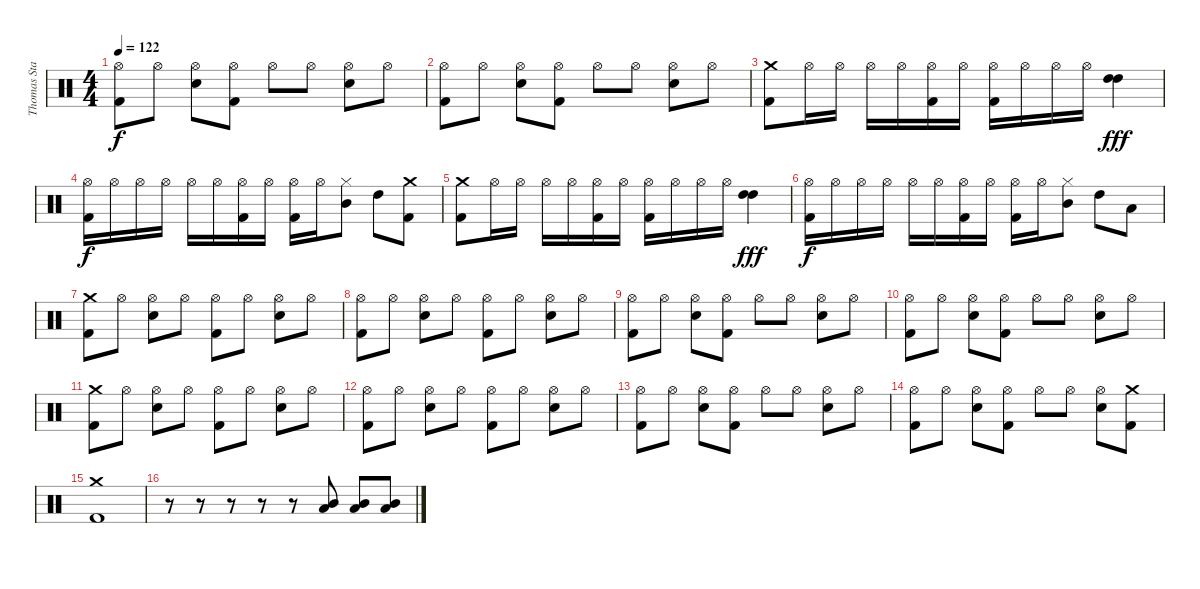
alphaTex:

\track ("Thomas Stauch" "Thomas Sta") {instrument percussion}
\staff {score}
\articulation defaults
\ts (4 4)
\tempo 122
\clef neutral
\ks c
("Hi-Hat (open)" "Kick (hit) 2").8{dy f} "Hi-Hat (open)".8 ("Hi-Hat (open)" "Electric Snare (hit)").8 ("Hi-Hat (open)" "Kick (hit) 2").8 "Hi-Hat (open)".8 "Hi-Hat (open)".8 ("Hi-Hat (open)" "Electric Snare (hit)").8 "Hi-Hat (open)".8 |
("Hi-Hat (open)" "Kick (hit) 2").8 "Hi-Hat (open)".8 ("Hi-Hat (open)" "Electric Snare (hit)").8 ("Hi-Hat (open)" "Kick (hit) 2").8 "Hi-Hat (open)".8 "Hi-Hat (open)".8 ("Hi-Hat (open)" "Electric Snare (hit)").8 "Hi-Hat (open)".8 |
("Crash medium (hit)" "Kick (hit) 2").8 "Hi-Hat (open)".16 "Hi-Hat (open)".16 "Hi-Hat (open)".16 "Hi-Hat (open)".16 ("Hi-Hat (open)" "Kick (hit) 2").16 "Hi-Hat (open)".16 ("Hi-Hat (open)" "Kick (hit) 2").16 "Hi-Hat (open)".16 "Hi-Hat (open)".16 "Hi-Hat (open)".16 ("High Tom (hit)" "High Tom (hit)").4{dy fff} |
("Hi-Hat (open)" "Kick (hit) 2").16{dy f} "Hi-Hat (open)".16 "Hi-Hat (open)".16 "Hi-Hat (open)".16 "Hi-Hat (open)".16 "Hi-Hat (open)".16 ("Hi-Hat (open)" "Kick (hit) 2").16 "Hi-Hat (open)".16 ("Hi-Hat (open)" "Kick (hit) 2").16 "Hi-Hat (open)".16 ("Hi-Hat (closed)" "Mid Tom (hit)").8 "High Tom (hit)".8 ("Crash medium (hit)" "Kick (hit) 2").8 |
("Crash medium (hit)" "Kick (hit) 2").8 "Hi-Hat (open)".16 "Hi-Hat (open)".16 "Hi-Hat (open)".16 "Hi-Hat (open)".16 ("Hi-Hat (open)" "Kick (hit) 2").16 "Hi-Hat (open)".16 ("Hi-Hat (open)" "Kick (hit) 2").16 "Hi-Hat (open)".16 "Hi-Hat (open)".16 "Hi-Hat (open)".16 ("High Tom (hit)" "High Tom (hit)").4{dy fff} |
("Hi-Hat (open)" "Kick (hit) 2").16{dy f} "Hi-Hat (open)".16 "Hi-Hat (open)".16 "Hi-Hat (open)".16 "Hi-Hat (open)".16 "Hi-Hat (open)".16 ("Hi-Hat (open)" "Kick (hit) 2").16 "Hi-Hat (open)".16 ("Hi-Hat (open)" "Kick (hit) 2").16 "Hi-Hat (open)".16 ("Hi-Hat (closed)" "Mid Tom (hit)").8 "High Tom (hit)".8 "Low Tom (hit)".8 |
("Crash medium (hit)" "Kick (hit) 2").8 "Hi-Hat (open)".8 ("Hi-Hat (open)" "Electric Snare (hit)").8 "Hi-Hat (open)".8 ("Hi-Hat (open)" "Kick (hit) 2").8 "Hi-Hat (open)".8 ("Hi-Hat (open)" "Electric Snare (hit)").8 "Hi-Hat (open)".8 |
("Hi-Hat (open)" "Kick (hit) 2").8 "Hi-Hat (open)".8 ("Hi-Hat (open)" "Electric Snare (hit)").8 "Hi-Hat (open)".8 ("Hi-Hat (open)" "Kick (hit) 2").8 "Hi-Hat (open)".8 ("Hi-Hat (open)" "Electric Snare (hit)").8 "Hi-Hat (open)".8 |
("Hi-Hat (open)" "Kick (hit) 2").8 "Hi-Hat (open)".8 ("Hi-Hat (open)" "Electric Snare (hit)").8 ("Hi-Hat (open)" "Kick (hit) 2").8 "Hi-Hat (open)".8 "Hi-Hat (open)".8 ("Hi-Hat (open)" "Electric Snare (hit)").8 "Hi-Hat (open)".8 |
("Hi-Hat (open)" "Kick (hit) 2").8 "Hi-Hat (open)".8 ("Hi-Hat (open)" "Electric Snare (hit)").8 ("Hi-Hat (open)" "Kick (hit) 2").8 "Hi-Hat (open)".8 "Hi-Hat (open)".8 ("Hi-Hat (open)" "Electric Snare (hit)").8 "Hi-Hat (open)".8 |
("Crash medium (hit)" "Kick (hit) 2").8 "Hi-Hat (open)".8 ("Hi-Hat (open)" "Electric Snare (hit)").8 "Hi-Hat (open)".8 ("Hi-Hat (open)" "Kick (hit) 2").8 "Hi-Hat (open)".8 ("Hi-Hat (open)" "Electric Snare (hit)").8 "Hi-Hat (open)".8 |
("Hi-Hat (open)" "Kick (hit) 2").8 "Hi-Hat (open)".8 ("Hi-Hat (open)" "Electric Snare (hit)").8 "Hi-Hat (open)".8 ("Hi-Hat (open)" "Kick (hit) 2").8 "Hi-Hat (open)".8 ("Hi-Hat (open)" "Electric Snare (hit)").8 "Hi-Hat (open)".8 |
("Hi-Hat (open)" "Kick (hit) 2").8 "Hi-Hat (open)".8 ("Hi-Hat (open)" "Electric Snare (hit)").8 ("Hi-Hat (open)" "Kick (hit) 2").8 "Hi-Hat (open)".8 "Hi-Hat (open)".8 ("Hi-Hat (open)" "Electric Snare (hit)").8 "Hi-Hat (open)".8 |
("Hi-Hat (open)" "Kick (hit) 2").8 "Hi-Hat (open)".8 ("Hi-Hat (open)" "Electric Snare (hit)").8 ("Hi-Hat (open)" "Kick (hit) 2").8 "Hi-Hat (open)".8 "Hi-Hat (open)".8 ("Hi-Hat (open)" "Electric Snare (hit)").8 ("Crash medium (hit)" "Kick (hit) 2").8 |
("Crash medium (hit)" "Kick (hit) 2").1 |
r.8 r.8 r.8 r.8 r.8 ("Mid Tom (hit)" "Low Tom (hit)").8 ("Mid Tom (hit)" "Low Tom (hit)").8 ("Mid Tom (hit)" "Low Tom (hit)").8
